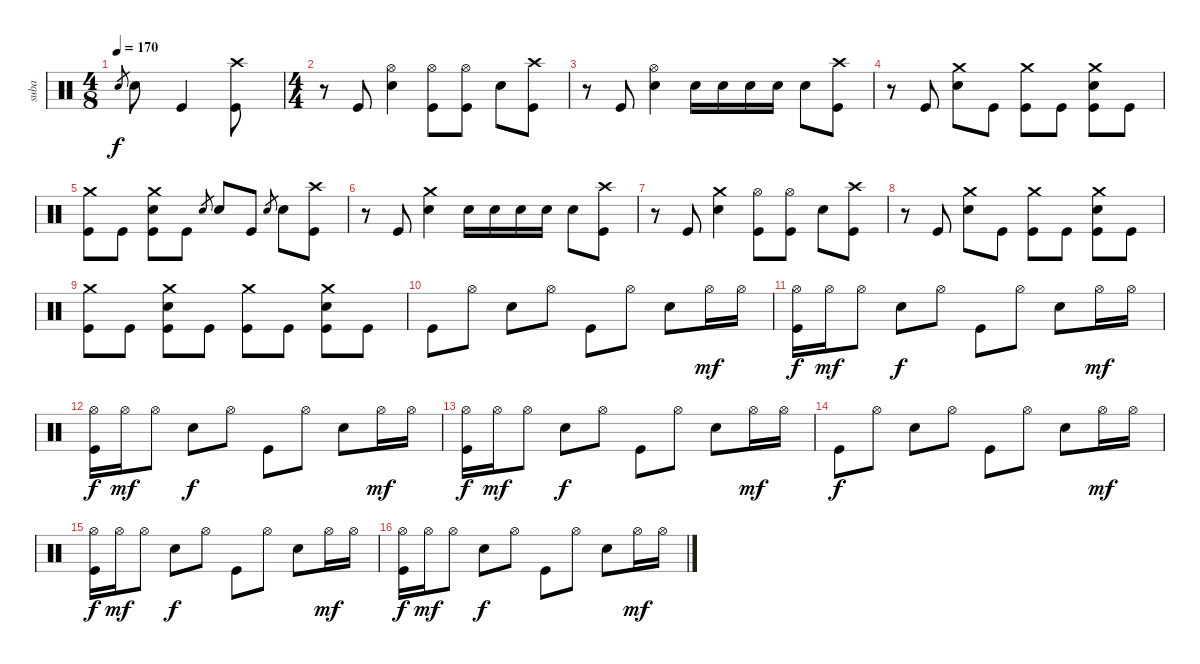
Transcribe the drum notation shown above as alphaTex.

\track ("suba" "suba") {instrument percussion}
\staff {score}
\articulation defaults
\ts (4 8)
\tempo 170
\clef neutral
\ks c "Electric Snare (hit)".8{gr dy f} "Electric Snare (hit)".8 "Kick (hit)".4
("Crash high (hit)" "Kick (hit)").8 |
\ts (4 4)
r.8 "Kick (hit)".8 ("Hi-Hat (open)" "Electric Snare (hit)").4 ("Hi-Hat (open)" "Kick (hit)").8 ("Hi-Hat (open)" "Kick (hit)").8 "Electric Snare (hit)".8 ("Crash high (hit)" "Kick (hit)").8 |
r.8 "Kick (hit)".8 ("Hi-Hat (open)" "Electric Snare (hit)").4 "Electric Snare (hit)".16 "Electric Snare (hit)".16 "Electric Snare (hit)".16 "Electric Snare (hit)".16 "Electric Snare (hit)".8 ("Crash high (hit)" "Kick (hit)").8 |
r.8 "Kick (hit)".8 ("Crash medium (hit)" "Electric Snare (hit)").8 "Kick (hit)".8 ("Crash medium (hit)" "Kick (hit)").8 "Kick (hit)".8 ("Crash medium (hit)" "Electric Snare (hit)" "Kick (hit)").8 "Kick (hit)".8 |
("Crash medium (hit)" "Kick (hit)").8 "Kick (hit)".8 ("Crash medium (hit)" "Electric Snare (hit)" "Kick (hit)").8 "Kick (hit)".8 "Electric Snare (hit)".8{gr} "Electric Snare (hit)".8 "Kick (hit)".8 "Electric Snare (hit)".8{gr} "Electric Snare (hit)".8 ("Crash high (hit)" "Kick (hit)").8 |
r.8 "Kick (hit)".8 ("Crash medium (hit)" "Electric Snare (hit)").4 "Electric Snare (hit)".16 "Electric Snare (hit)".16 "Electric Snare (hit)".16 "Electric Snare (hit)".16 "Electric Snare (hit)".8 ("Crash high (hit)" "Kick (hit)").8 |
r.8 "Kick (hit)".8 ("Crash medium (hit)" "Electric Snare (hit)").4 ("Hi-Hat (open)" "Kick (hit)").8 ("Hi-Hat (open)" "Kick (hit)").8 "Electric Snare (hit)".8 ("Crash high (hit)" "Kick (hit)").8 |
r.8 "Kick (hit)".8 ("Crash medium (hit)" "Electric Snare (hit)").8 "Kick (hit)".8 ("Crash medium (hit)" "Kick (hit)").8 "Kick (hit)".8 ("Crash medium (hit)" "Electric Snare (hit)" "Kick (hit)").8 "Kick (hit)".8 |
("Crash medium (hit)" "Kick (hit)").8 "Kick (hit)".8 ("Crash medium (hit)" "Electric Snare (hit)" "Kick (hit)").8 "Kick (hit)".8 ("Crash medium (hit)" "Kick (hit)").8 "Kick (hit)".8 ("Crash medium (hit)" "Electric Snare (hit)" "Kick (hit)").8 "Kick (hit)".8 |
"Kick (hit)".8 "Hi-Hat (open)".8 "Electric Snare (hit)".8 "Hi-Hat (open)".8 "Kick (hit)".8 "Hi-Hat (open)".8 "Electric Snare (hit)".8 "Hi-Hat (open)".16{dy mf} "Hi-Hat (open)".16 |
("Hi-Hat (open)" "Kick (hit)").16{dy f} "Hi-Hat (open)".16{dy mf} "Hi-Hat (open)".8 "Electric Snare (hit)".8{dy f} "Hi-Hat (open)".8 "Kick (hit)".8 "Hi-Hat (open)".8 "Electric Snare (hit)".8 "Hi-Hat (open)".16{dy mf} "Hi-Hat (open)".16 |
("Hi-Hat (open)" "Kick (hit)").16{dy f} "Hi-Hat (open)".16{dy mf} "Hi-Hat (open)".8 "Electric Snare (hit)".8{dy f} "Hi-Hat (open)".8 "Kick (hit)".8 "Hi-Hat (open)".8 "Electric Snare (hit)".8 "Hi-Hat (open)".16{dy mf} "Hi-Hat (open)".16 |
("Hi-Hat (open)" "Kick (hit)").16{dy f} "Hi-Hat (open)".16{dy mf} "Hi-Hat (open)".8 "Electric Snare (hit)".8{dy f} "Hi-Hat (open)".8 "Kick (hit)".8 "Hi-Hat (open)".8 "Electric Snare (hit)".8 "Hi-Hat (open)".16{dy mf} "Hi-Hat (open)".16 |
"Kick (hit)".8{dy f} "Hi-Hat (open)".8 "Electric Snare (hit)".8 "Hi-Hat (open)".8 "Kick (hit)".8 "Hi-Hat (open)".8 "Electric Snare (hit)".8 "Hi-Hat (open)".16{dy mf} "Hi-Hat (open)".16 |
("Hi-Hat (open)" "Kick (hit)").16{dy f} "Hi-Hat (open)".16{dy mf} "Hi-Hat (open)".8 "Electric Snare (hit)".8{dy f} "Hi-Hat (open)".8 "Kick (hit)".8 "Hi-Hat (open)".8 "Electric Snare (hit)".8 "Hi-Hat (open)".16{dy mf} "Hi-Hat (open)".16 |
("Hi-Hat (open)" "Kick (hit)").16{dy f} "Hi-Hat (open)".16{dy mf} "Hi-Hat (open)".8 "Electric Snare (hit)".8{dy f} "Hi-Hat (open)".8 "Kick (hit)".8 "Hi-Hat (open)".8 "Electric Snare (hit)".8 "Hi-Hat (open)".16{dy mf} "Hi-Hat (open)".16
